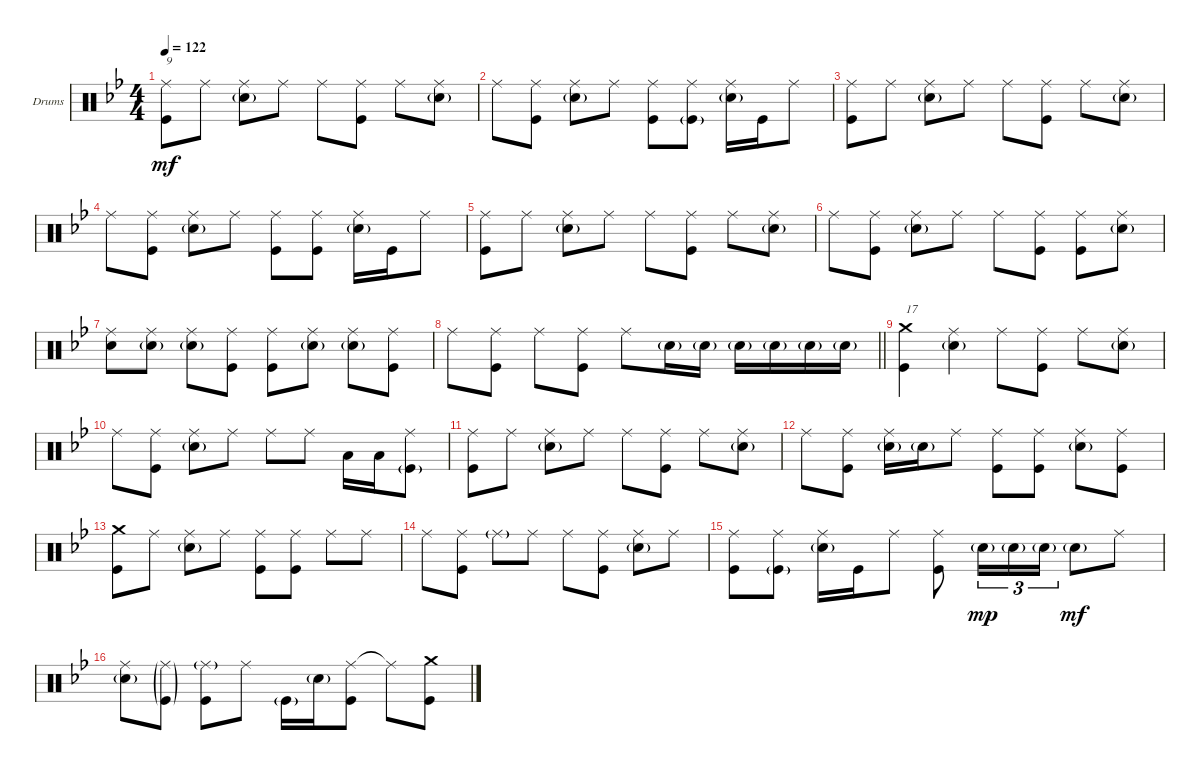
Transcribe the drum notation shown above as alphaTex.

\defaultSystemsLayout 4
\bracketExtendMode groupsimilarinstruments
\firstSystemTrackNameOrientation horizontal
\otherSystemsTrackNameOrientation horizontal
\track ("Drumkit" "Drums") {instrument percussion}
\staff {score}
\articulation defaults
\ts (4 4)
\tempo 122
\clef neutral
\ks bb
("Kick (hit)" "Ride (middle)").8{txt "9" dy mf} "Ride (middle)".8 ("Ride (middle)" "Snare (hit) 2"{g}).8 "Ride (middle)".8 "Ride (middle)".8 ("Kick (hit)" "Ride (middle)").8 "Ride (middle)".8 ("Ride (middle)" "Snare (hit) 2"{g}).8 |
"Ride (middle)".8 ("Ride (middle)" "Kick (hit)").8 ("Ride (middle)" "Snare (hit) 2"{g}).8 "Ride (middle)".8 ("Ride (middle)" "Kick (hit)").8 ("Ride (middle)" "Kick (hit)"{g}).8 ("Ride (middle)" "Snare (hit) 2"{g}).16 "Kick (hit)".16 "Ride (middle)".8 |
("Kick (hit)" "Ride (middle)").8 "Ride (middle)".8 ("Ride (middle)" "Snare (hit) 2"{g}).8 "Ride (middle)".8 "Ride (middle)".8 ("Kick (hit)" "Ride (middle)").8 "Ride (middle)".8 ("Ride (middle)" "Snare (hit) 2"{g}).8 |
"Ride (middle)".8 ("Ride (middle)" "Kick (hit)").8 ("Ride (middle)" "Snare (hit) 2"{g}).8 "Ride (middle)".8 ("Ride (middle)" "Kick (hit)").8 ("Ride (middle)" "Kick (hit)").8 ("Ride (middle)" "Snare (hit) 2"{g}).16 "Kick (hit)".16 "Ride (middle)".8 |
("Kick (hit)" "Ride (middle)").8 "Ride (middle)".8 ("Ride (middle)" "Snare (hit) 2"{g}).8 "Ride (middle)".8 "Ride (middle)".8 ("Kick (hit)" "Ride (middle)").8 "Ride (middle)".8 ("Ride (middle)" "Snare (hit) 2"{g}).8 |
"Ride (middle)".8 ("Ride (middle)" "Kick (hit)").8 ("Ride (middle)" "Snare (hit) 2"{g}).8 "Ride (middle)".8 "Ride (middle)".8 ("Kick (hit)" "Ride (middle)").8 ("Kick (hit)" "Ride (middle)").8 ("Ride (middle)" "Snare (hit) 2"{g}).8 |
("Ride (middle)" "Snare (hit) 2").8 ("Ride (middle)" "Snare (hit) 2"{g}).8 ("Ride (middle)" "Snare (hit) 2"{g}).8 ("Ride (middle)" "Kick (hit)").8 ("Ride (middle)" "Kick (hit)").8 ("Ride (middle)" "Snare (hit) 2"{g}).8 ("Ride (middle)" "Snare (hit) 2"{g}).8 ("Ride (middle)" "Kick (hit)").8 |
\barLineRight lightlight "Ride (middle)".8
("Ride (middle)" "Kick (hit)").8 "Ride (middle)".8 ("Ride (middle)" "Kick (hit)").8 "Ride (middle)".8 "Snare (hit) 2"{g}.16 "Snare (hit) 2"{g}.16 "Snare (hit) 2"{g}.16 "Snare (hit) 2"{g}.16 "Snare (hit) 2"{g}.16 "Snare (hit) 2"{g}.16 |
("Crash medium (hit)" "Kick (hit)").4{txt "17"} ("Ride (middle)" "Snare (hit) 2"{g}).4 "Ride (middle)".8 ("Kick (hit)" "Ride (middle)").8 "Ride (middle)".8 ("Ride (middle)" "Snare (hit) 2"{g}).8 |
"Ride (middle)".8 ("Ride (middle)" "Kick (hit)").8 ("Ride (middle)" "Snare (hit) 2"{g}).8 "Ride (middle)".8 "Ride (middle)".8 "Ride (middle)".8 "Low Tom (hit)".16 "Low Tom (hit)".16 ("Ride (middle)" "Kick (hit)"{g}).8 |
("Kick (hit)" "Ride (middle)").8 "Ride (middle)".8 ("Ride (middle)" "Snare (hit) 2"{g}).8 "Ride (middle)".8 "Ride (middle)".8 ("Kick (hit)" "Ride (middle)").8 "Ride (middle)".8 ("Ride (middle)" "Snare (hit) 2"{g}).8 |
"Ride (middle)".8 ("Ride (middle)" "Kick (hit)").8 ("Ride (middle)" "Snare (hit) 2"{g}).16 "Snare (hit) 2"{g}.16 "Ride (middle)".8 ("Ride (middle)" "Kick (hit)").8 ("Kick (hit)" "Ride (middle)").8 ("Ride (middle)" "Snare (hit) 2"{g}).8 ("Ride (middle)" "Kick (hit)").8 |
("Crash medium (hit)" "Kick (hit)").8 "Ride (middle)".8 ("Ride (middle)" "Snare (hit) 2"{g}).8 "Ride (middle)".8 ("Ride (middle)" "Kick (hit)").8 ("Kick (hit)" "Ride (middle)").8 "Ride (middle)".8 "Ride (middle)".8 |
"Ride (middle)".8 ("Ride (middle)" "Kick (hit)").8 "Ride (middle)"{g}.8 "Ride (middle)".8 "Ride (middle)".8 ("Ride (middle)" "Kick (hit)").8 ("Ride (middle)" "Snare (hit) 2"{g}).8 "Ride (middle)".8 |
("Ride (middle)" "Kick (hit)").8 ("Ride (middle)" "Kick (hit)"{g}).8 ("Ride (middle)" "Snare (hit) 2"{g}).16 "Kick (hit)".16 "Ride (middle)".8 ("Ride (middle)" "Kick (hit)").8 "Snare (hit) 2"{g}.16{tu (3 2) dy mp} "Snare (hit) 2"{g}.16{tu (3 2)} "Snare (hit) 2"{g}.16{tu (3 2)} "Snare (hit) 2"{g}.8{dy mf} "Ride (middle)".8 |
("Ride (middle)" "Snare (hit) 2"{g}).8 ("Ride (middle)"{g} "Kick (hit)"{g}).8 ("Ride (middle)"{g} "Kick (hit)").8 "Ride (middle)".8 "Kick (hit)"{g}.16 "Snare (hit) 2"{g}.16 ("Ride (middle)" "Kick (hit)").8 "Ride (middle)"{t}.8 ("Kick (hit)" "Crash medium (hit)").8
